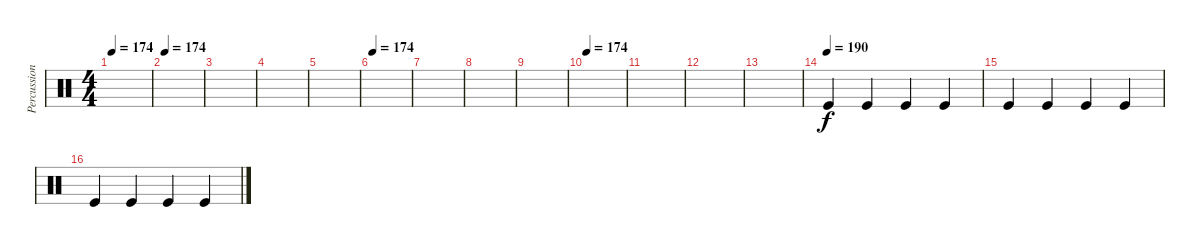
\track ("Percussion" "Percussion") {instrument percussion}
\staff {score}
\articulation defaults
\ts (4 4)
\tempo 174
\clef neutral
\ks c
|
\tempo 174
|
|
|
|
\tempo 174
|
|
|
|
\tempo 174
|
|
|
|
\tempo (190)
"Kick (hit)".4 "Kick (hit)".4 "Kick (hit)".4 "Kick (hit)".4 |
"Kick (hit)".4 "Kick (hit)".4 "Kick (hit)".4 "Kick (hit)".4 |
"Kick (hit)".4 "Kick (hit)".4 "Kick (hit)".4 "Kick (hit)".4
